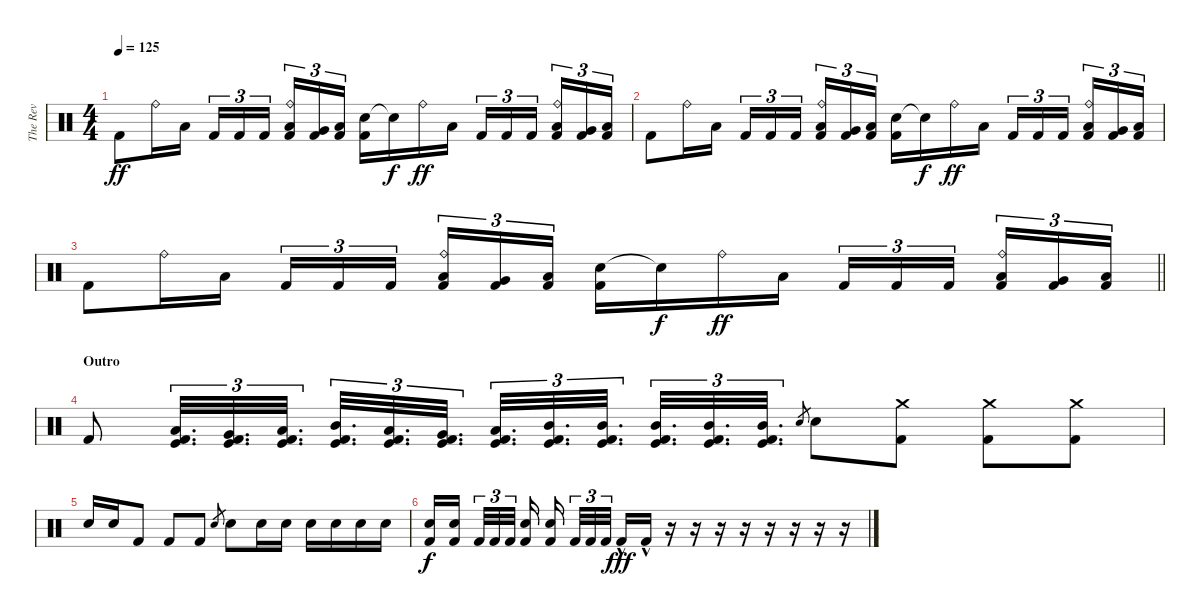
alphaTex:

\track ("The Rev" "The Rev") {instrument percussion}
\staff {score}
\articulation defaults
\ts (4 4)
\tempo 125
\clef neutral
\ks c "Kick (hit) 2".8{dy ff} "Ride (bell)".16 "Low Tom (hit)".16 "Kick (hit) 2".16{tu (3 2)} "Kick (hit) 2".16{tu (3 2)} "Kick (hit) 2".16{tu (3 2) beam splitsecondary}
("Ride (bell)" "Low Tom (hit)" "Kick (hit) 2").16{tu (3 2)} ("Very Low Tom (hit)" "Kick (hit) 2").16{tu (3 2)} ("Low Floor Tom (hit)" "Kick (hit) 2").16{tu (3 2)} ("Electric Snare (hit)" "Kick (hit) 2").16 "Snare (hit)"{t}.16{dy f} "Ride (bell)".16{dy ff} "Low Tom (hit)".16 "Kick (hit) 2".16{tu (3 2)} "Kick (hit) 2".16{tu (3 2)} "Kick (hit) 2".16{tu (3 2) beam splitsecondary} ("Ride (bell)" "Low Tom (hit)" "Kick (hit) 2").16{tu (3 2)} ("Very Low Tom (hit)" "Kick (hit) 2").16{tu (3 2)} ("Low Floor Tom (hit)" "Kick (hit) 2").16{tu (3 2)} |
"Kick (hit) 2".8 "Ride (bell)".16 "Low Tom (hit)".16 "Kick (hit) 2".16{tu (3 2)} "Kick (hit) 2".16{tu (3 2)} "Kick (hit) 2".16{tu (3 2) beam splitsecondary} ("Ride (bell)" "Low Tom (hit)" "Kick (hit) 2").16{tu (3 2)} ("Very Low Tom (hit)" "Kick (hit) 2").16{tu (3 2)} ("Low Floor Tom (hit)" "Kick (hit) 2").16{tu (3 2)} ("Electric Snare (hit)" "Kick (hit) 2").16 "Snare (hit)"{t}.16{dy f} "Ride (bell)".16{dy ff} "Low Tom (hit)".16 "Kick (hit) 2".16{tu (3 2)} "Kick (hit) 2".16{tu (3 2)} "Kick (hit) 2".16{tu (3 2) beam splitsecondary} ("Ride (bell)" "Low Tom (hit)" "Kick (hit) 2").16{tu (3 2)} ("Very Low Tom (hit)" "Kick (hit) 2").16{tu (3 2)} ("Low Floor Tom (hit)" "Kick (hit) 2").16{tu (3 2)} |
\barLineRight lightlight "Kick (hit) 2".8 "Ride (bell)".16 "Low Tom (hit)".16 "Kick (hit) 2".16{tu (3 2)} "Kick (hit) 2".16{tu (3 2)} "Kick (hit) 2".16{tu (3 2) beam splitsecondary}
("Ride (bell)" "Low Tom (hit)" "Kick (hit) 2").16{tu (3 2)} ("Very Low Tom (hit)" "Kick (hit) 2").16{tu (3 2)} ("Low Floor Tom (hit)" "Kick (hit) 2").16{tu (3 2)} ("Electric Snare (hit)" "Kick (hit) 2").16 "Snare (hit)"{t}.16{dy f} "Ride (bell)".16{dy ff} "Low Tom (hit)".16 "Kick (hit) 2".16{tu (3 2)} "Kick (hit) 2".16{tu (3 2)} "Kick (hit) 2".16{tu (3 2) beam splitsecondary} ("Ride (bell)" "Low Tom (hit)" "Kick (hit) 2").16{tu (3 2)} ("Very Low Tom (hit)" "Kick (hit) 2").16{tu (3 2)} ("Low Floor Tom (hit)" "Kick (hit) 2").16{tu (3 2)} |
\section ("" "Outro")
"Kick (hit) 2".8 ("Kick (hit)" "Low Tom (hit)" "Kick (hit) 2").32{d tu (3 2)} ("Kick (hit)" "Very Low Tom (hit)" "Kick (hit) 2").32{d tu (3 2)} ("Kick (hit)" "Low Floor Tom (hit)" "Kick (hit) 2").32{d tu (3 2)} ("Kick (hit)" "Mid Tom (hit)" "Kick (hit) 2").32{d tu (3 2)} ("Kick (hit)" "Low Tom (hit)" "Kick (hit) 2").32{d tu (3 2)} ("Kick (hit)" "Very Low Tom (hit)" "Kick (hit) 2").32{d tu (3 2)} ("Kick (hit)" "Low Floor Tom (hit)" "Kick (hit) 2").32{d tu (3 2)} ("Kick (hit)" "Mid Tom (hit)" "Kick (hit) 2").32{d tu (3 2)} ("Kick (hit)" "Mid Tom (hit)" "Kick (hit) 2").32{d tu (3 2)} ("Kick (hit)" "Mid Tom (hit)" "Kick (hit) 2").32{d tu (3 2)} ("Kick (hit)" "Mid Tom (hit)" "Kick (hit) 2").32{d tu (3 2)} ("Kick (hit)" "Mid Tom (hit)" "Kick (hit) 2").32{d tu (3 2)} "Electric Snare (hit)".8{gr} "Electric Snare (hit)".8 ("Crash medium (hit)" "Kick (hit) 2").8 ("Crash medium (hit)" "Kick (hit) 2").8 ("Crash medium (hit)" "Kick (hit) 2").8 |
"Electric Snare (hit)".16 "Electric Snare (hit)".16 "Kick (hit) 2".8 "Kick (hit) 2".8 "Kick (hit) 2".8 "Electric Snare (hit)".8{gr} "Electric Snare (hit)".8 "Electric Snare (hit)".16 "Electric Snare (hit)".16 "Electric Snare (hit)".16 "Electric Snare (hit)".16 "Electric Snare (hit)".16 "Electric Snare (hit)".16 |
("Electric Snare (hit)" "Kick (hit) 2").16{dy f} ("Electric Snare (hit)" "Kick (hit) 2").16{beam splitsecondary} "Kick (hit) 2".32{tu (3 2)} "Kick (hit) 2".32{tu (3 2)} "Kick (hit) 2".32{tu (3 2) beam splitsecondary} ("Electric Snare (hit)" "Kick (hit) 2").16 ("Electric Snare (hit)" "Kick (hit) 2").16{beam splitsecondary} "Kick (hit) 2".32{tu (3 2)} "Kick (hit) 2".32{tu (3 2)} "Kick (hit) 2".32{tu (3 2) beam splitsecondary} "Kick (hit) 2"{hac}.16{dy fff} "Kick (hit) 2"{hac}.16 r.16 r.16 r.16 r.16 r.16 r.16 r.16 r.16
